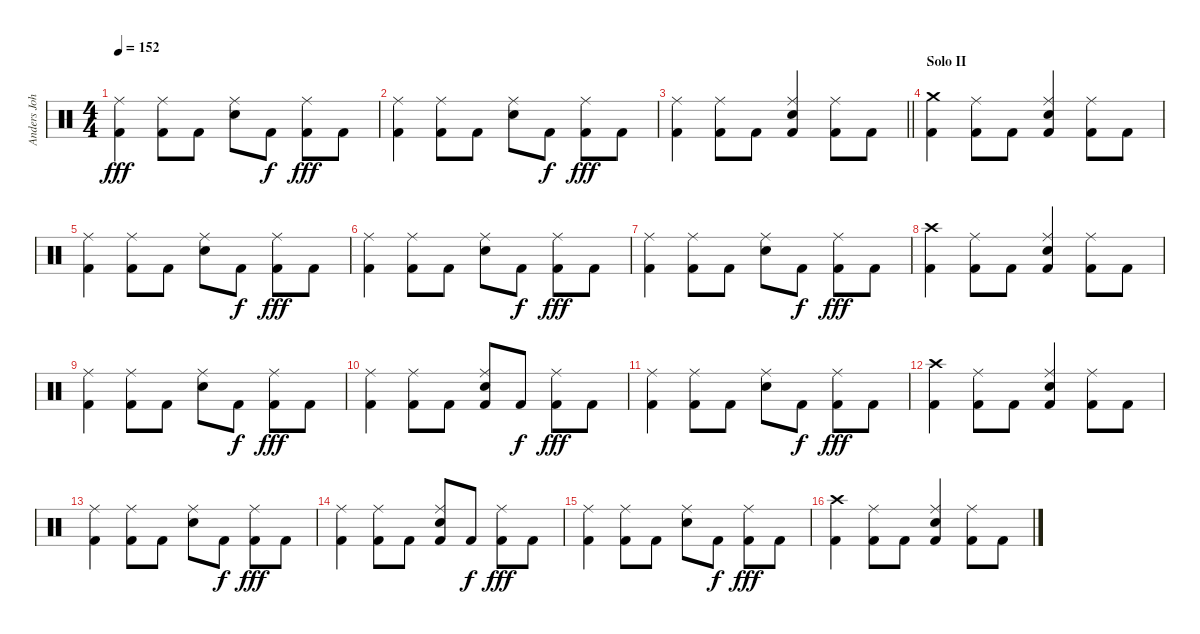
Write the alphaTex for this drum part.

\track ("Anders Johansson (Drums)" "Anders Joh") {instrument percussion}
\staff {score}
\articulation defaults
\ts (4 4)
\tempo 152
\clef neutral
\ks c
("Kick (hit) 2" "Ride (middle)").4{dy fff} ("Kick (hit) 2" "Ride (middle)").8 "Kick (hit) 2".8 ("Electric Snare (hit)" "Ride (middle)").8 "Kick (hit) 2".8{dy f} ("Kick (hit) 2" "Ride (middle)").8{dy fff} "Kick (hit) 2".8 |
("Kick (hit) 2" "Ride (middle)").4 ("Kick (hit) 2" "Ride (middle)").8 "Kick (hit) 2".8 ("Electric Snare (hit)" "Ride (middle)").8 "Kick (hit) 2".8{dy f} ("Kick (hit) 2" "Ride (middle)").8{dy fff} "Kick (hit) 2".8 |
\barLineRight lightlight
("Kick (hit) 2" "Ride (middle)").4 ("Kick (hit) 2" "Ride (middle)").8 "Kick (hit) 2".8 ("Kick (hit) 2" "Electric Snare (hit)" "Ride (middle)").4 ("Kick (hit) 2" "Ride (middle)").8 "Kick (hit) 2".8 |
\section ("" "Solo II")
("Kick (hit) 2" "Crash medium (hit)").4 ("Kick (hit) 2" "Ride (middle)").8 "Kick (hit) 2".8 ("Kick (hit) 2" "Electric Snare (hit)" "Ride (middle)").4 ("Kick (hit) 2" "Ride (middle)").8 "Kick (hit) 2".8 |
("Kick (hit) 2" "Ride (middle)").4 ("Kick (hit) 2" "Ride (middle)").8 "Kick (hit) 2".8 ("Electric Snare (hit)" "Ride (middle)").8 "Kick (hit) 2".8{dy f} ("Kick (hit) 2" "Ride (middle)").8{dy fff} "Kick (hit) 2".8 |
("Kick (hit) 2" "Ride (middle)").4 ("Kick (hit) 2" "Ride (middle)").8 "Kick (hit) 2".8 ("Electric Snare (hit)" "Ride (middle)").8 "Kick (hit) 2".8{dy f} ("Kick (hit) 2" "Ride (middle)").8{dy fff} "Kick (hit) 2".8 |
("Kick (hit) 2" "Ride (middle)").4 ("Kick (hit) 2" "Ride (middle)").8 "Kick (hit) 2".8 ("Electric Snare (hit)" "Ride (middle)").8 "Kick (hit) 2".8{dy f} ("Kick (hit) 2" "Ride (middle)").8{dy fff} "Kick (hit) 2".8 |
("Kick (hit) 2" "Crash high (hit)").4 ("Kick (hit) 2" "Ride (middle)").8 "Kick (hit) 2".8 ("Kick (hit) 2" "Electric Snare (hit)" "Ride (middle)").4 ("Kick (hit) 2" "Ride (middle)").8 "Kick (hit) 2".8 |
("Kick (hit) 2" "Ride (middle)").4 ("Kick (hit) 2" "Ride (middle)").8 "Kick (hit) 2".8 ("Electric Snare (hit)" "Ride (middle)").8 "Kick (hit) 2".8{dy f} ("Kick (hit) 2" "Ride (middle)").8{dy fff} "Kick (hit) 2".8 |
("Kick (hit) 2" "Ride (middle)").4 ("Kick (hit) 2" "Ride (middle)").8 "Kick (hit) 2".8 ("Kick (hit) 2" "Electric Snare (hit)" "Ride (middle)").8 "Kick (hit) 2".8{dy f} ("Kick (hit) 2" "Ride (middle)").8{dy fff} "Kick (hit) 2".8 |
("Kick (hit) 2" "Ride (middle)").4 ("Kick (hit) 2" "Ride (middle)").8 "Kick (hit) 2".8 ("Electric Snare (hit)" "Ride (middle)").8 "Kick (hit) 2".8{dy f} ("Kick (hit) 2" "Ride (middle)").8{dy fff} "Kick (hit) 2".8 |
("Kick (hit) 2" "Crash high (hit)").4 ("Kick (hit) 2" "Ride (middle)").8 "Kick (hit) 2".8 ("Kick (hit) 2" "Electric Snare (hit)" "Ride (middle)").4 ("Kick (hit) 2" "Ride (middle)").8 "Kick (hit) 2".8 |
("Kick (hit) 2" "Ride (middle)").4 ("Kick (hit) 2" "Ride (middle)").8 "Kick (hit) 2".8 ("Electric Snare (hit)" "Ride (middle)").8 "Kick (hit) 2".8{dy f} ("Kick (hit) 2" "Ride (middle)").8{dy fff} "Kick (hit) 2".8 |
("Kick (hit) 2" "Ride (middle)").4 ("Kick (hit) 2" "Ride (middle)").8 "Kick (hit) 2".8 ("Kick (hit) 2" "Electric Snare (hit)" "Ride (middle)").8 "Kick (hit) 2".8{dy f} ("Kick (hit) 2" "Ride (middle)").8{dy fff} "Kick (hit) 2".8 |
("Kick (hit) 2" "Ride (middle)").4 ("Kick (hit) 2" "Ride (middle)").8 "Kick (hit) 2".8 ("Electric Snare (hit)" "Ride (middle)").8 "Kick (hit) 2".8{dy f} ("Kick (hit) 2" "Ride (middle)").8{dy fff} "Kick (hit) 2".8 |
("Kick (hit) 2" "Crash high (hit)").4 ("Kick (hit) 2" "Ride (middle)").8 "Kick (hit) 2".8 ("Kick (hit) 2" "Electric Snare (hit)" "Ride (middle)").4 ("Kick (hit) 2" "Ride (middle)").8 "Kick (hit) 2".8
